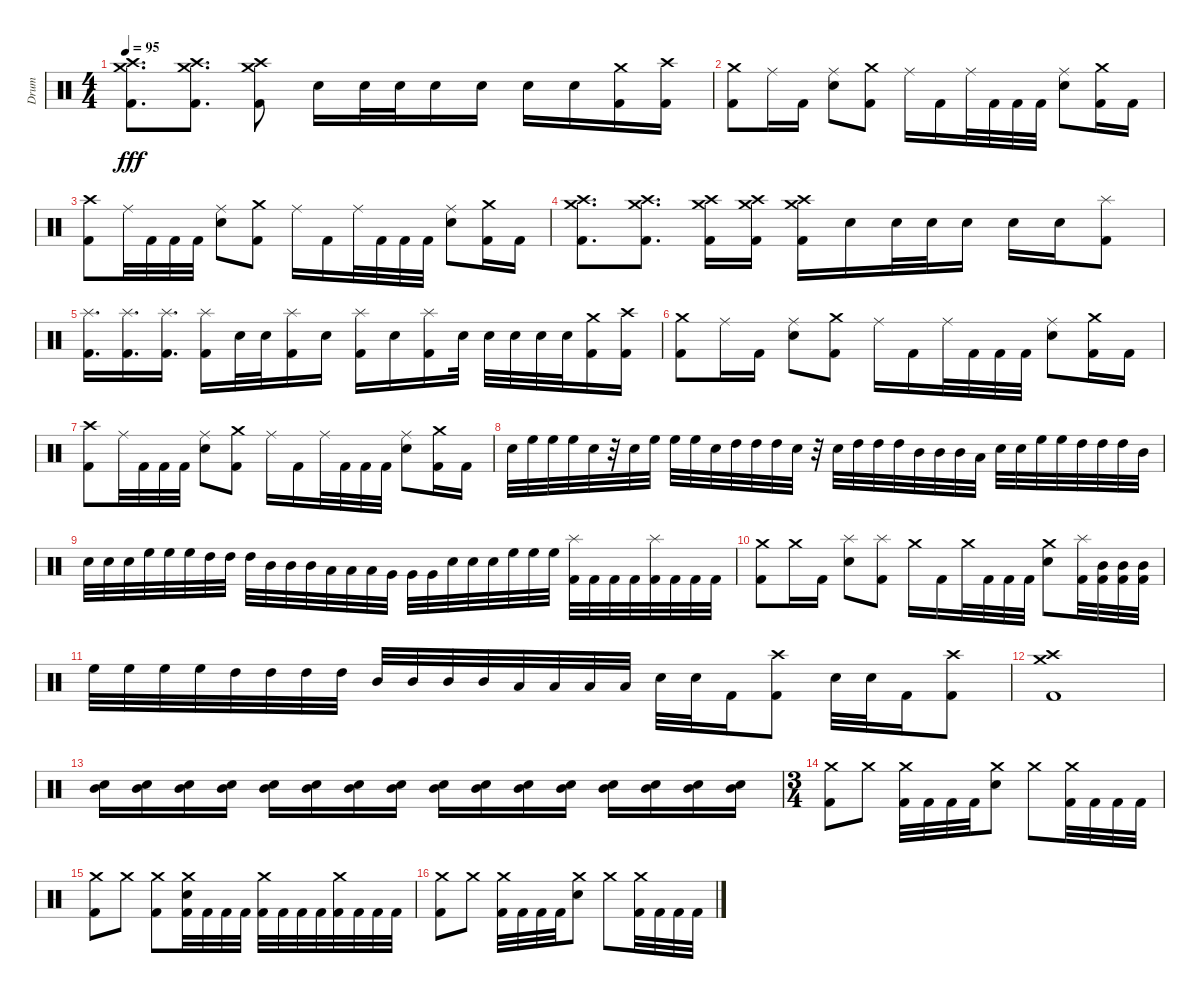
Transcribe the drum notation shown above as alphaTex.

\track ("Drum" "Drum") {instrument percussion}
\staff {score}
\articulation defaults
\ts (4 4)
\tempo 95
\clef neutral
\ks c
("Crash medium (hit)" "Crash high (hit)" "Kick (hit) 2").8{d dy fff} ("Crash medium (hit)" "Crash high (hit)" "Kick (hit) 2").8{d} ("Crash medium (hit)" "Crash high (hit)" "Kick (hit) 2").8 "Electric Snare (hit)".16 "Electric Snare (hit)".32 "Electric Snare (hit)".32 "Electric Snare (hit)".16 "Electric Snare (hit)".16 "Electric Snare (hit)".16 "Electric Snare (hit)".16 ("Crash medium (hit)" "Kick (hit) 2").16 ("Crash high (hit)" "Kick (hit) 2").16 |
("Crash medium (hit)" "Kick (hit) 2").8 "Ride (middle)".16 "Kick (hit) 2".16 ("Ride (middle)" "Electric Snare (hit)").8 ("Crash medium (hit)" "Kick (hit) 2").8 "Ride (middle)".16 "Kick (hit) 2".16 "Ride (middle)".32 "Kick (hit) 2".32 "Kick (hit) 2".32 "Kick (hit) 2".32 ("Ride (middle)" "Electric Snare (hit)").8 ("Crash medium (hit)" "Kick (hit) 2").16 "Kick (hit) 2".16 |
("Crash high (hit)" "Kick (hit) 2").8 "Ride (middle)".32 "Kick (hit) 2".32 "Kick (hit) 2".32 "Kick (hit) 2".32 ("Ride (middle)" "Electric Snare (hit)").8 ("Crash medium (hit)" "Kick (hit) 2").8 "Ride (middle)".16 "Kick (hit) 2".16 "Ride (middle)".32 "Kick (hit) 2".32 "Kick (hit) 2".32 "Kick (hit) 2".32 ("Ride (middle)" "Electric Snare (hit)").8 ("Crash medium (hit)" "Kick (hit) 2").16 "Kick (hit) 2".16 |
("Crash medium (hit)" "Crash high (hit)" "Kick (hit) 2").8{d} ("Crash medium (hit)" "Crash high (hit)" "Kick (hit) 2").8{d} ("Crash medium (hit)" "Crash high (hit)" "Kick (hit) 2").16 ("Crash medium (hit)" "Crash high (hit)" "Kick (hit) 2").16 ("Crash medium (hit)" "Crash high (hit)" "Kick (hit) 2").16 "Electric Snare (hit)".16 "Electric Snare (hit)".32 "Electric Snare (hit)".32 "Electric Snare (hit)".16 "Electric Snare (hit)".16 "Electric Snare (hit)".16 ("Splash (hit)" "Kick (hit) 2").8 |
("Splash (hit)" "Kick (hit) 2").16{d} ("Splash (hit)" "Kick (hit) 2").16{d} ("Splash (hit)" "Kick (hit) 2").16{d} ("Splash (hit)" "Kick (hit) 2").16 "Electric Snare (hit)".32 "Electric Snare (hit)".32 ("Splash (hit)" "Kick (hit) 2").16 "Electric Snare (hit)".16 ("Splash (hit)" "Kick (hit) 2").16 "Electric Snare (hit)".16 ("Splash (hit)" "Kick (hit) 2").16 "Electric Snare (hit)".32 "Electric Snare (hit)".32 "Electric Snare (hit)".32 "Electric Snare (hit)".32 "Electric Snare (hit)".32 ("Crash medium (hit)" "Kick (hit) 2").16 ("Crash high (hit)" "Kick (hit) 2").16 |
("Crash medium (hit)" "Kick (hit) 2").8 "Ride (middle)".16 "Kick (hit) 2".16 ("Ride (middle)" "Electric Snare (hit)").8 ("Crash medium (hit)" "Kick (hit) 2").8 "Ride (middle)".16 "Kick (hit) 2".16 "Ride (middle)".32 "Kick (hit) 2".32 "Kick (hit) 2".32 "Kick (hit) 2".32 ("Ride (middle)" "Electric Snare (hit)").8 ("Crash medium (hit)" "Kick (hit) 2").16 "Kick (hit) 2".16 |
("Crash high (hit)" "Kick (hit) 2").8 "Ride (middle)".32 "Kick (hit) 2".32 "Kick (hit) 2".32 "Kick (hit) 2".32 ("Ride (middle)" "Electric Snare (hit)").8 ("Crash medium (hit)" "Kick (hit) 2").8 "Ride (middle)".16 "Kick (hit) 2".16 "Ride (middle)".32 "Kick (hit) 2".32 "Kick (hit) 2".32 "Kick (hit) 2".32 ("Ride (middle)" "Electric Snare (hit)").8 ("Crash medium (hit)" "Kick (hit) 2").16 "Kick (hit) 2".16 |
"Electric Snare (hit)".32 "High Floor Tom (hit)".32 "High Floor Tom (hit)".32 "High Floor Tom (hit)".32 "Electric Snare (hit)".32 r.32 "Electric Snare (hit)".32 "High Floor Tom (hit)".32 "High Floor Tom (hit)".32 "High Floor Tom (hit)".32 "Electric Snare (hit)".32 "High Tom (hit)".32 "High Tom (hit)".32 "High Tom (hit)".32 "Electric Snare (hit)".32 r.32 "Electric Snare (hit)".32 "High Tom (hit)".32 "High Tom (hit)".32 "High Tom (hit)".32 "Mid Tom (hit)".32 "Mid Tom (hit)".32 "Mid Tom (hit)".32 "Low Tom (hit)".32 "Electric Snare (hit)".32 "Electric Snare (hit)".32 "High Floor Tom (hit)".32 "High Floor Tom (hit)".32 "High Tom (hit)".32 "High Tom (hit)".32 "High Tom (hit)".32 "Mid Tom (hit)".32 |
"Electric Snare (hit)".32 "Electric Snare (hit)".32 "Electric Snare (hit)".32 "High Floor Tom (hit)".32 "High Floor Tom (hit)".32 "High Floor Tom (hit)".32 "High Tom (hit)".32 "High Tom (hit)".32 "High Tom (hit)".32 "Mid Tom (hit)".32 "Mid Tom (hit)".32 "Mid Tom (hit)".32 "Low Tom (hit)".32 "Low Tom (hit)".32 "Low Tom (hit)".32 "Very Low Tom (hit)".32 "Very Low Tom (hit)".32 "Very Low Tom (hit)".32 "Electric Snare (hit)".32 "Electric Snare (hit)".32 "Electric Snare (hit)".32 "High Floor Tom (hit)".32 "High Floor Tom (hit)".32 "High Floor Tom (hit)".32 ("Splash (hit)" "Kick (hit) 2").32 "Kick (hit) 2".32 "Kick (hit) 2".32 "Kick (hit) 2".32 ("Splash (hit)" "Kick (hit) 2").32 "Kick (hit) 2".32 "Kick (hit) 2".32 "Kick (hit) 2".32 |
("Crash medium (hit)" "Kick (hit) 2").8 "Crash medium (hit)".16 "Kick (hit) 2".16 ("Splash (hit)" "Electric Snare (hit)").8 ("Splash (hit)" "Kick (hit) 2").8 "Crash medium (hit)".16 "Kick (hit) 2".16 "Crash medium (hit)".32 "Kick (hit) 2".32 "Kick (hit) 2".32 "Kick (hit) 2".32 ("Crash medium (hit)" "Electric Snare (hit)").8 ("Splash (hit)" "Kick (hit) 2").32 ("Mid Tom (hit)" "Kick (hit) 2").32 ("Mid Tom (hit)" "Kick (hit) 2").32 ("Mid Tom (hit)" "Kick (hit) 2").32 |
"High Floor Tom (hit)".32 "High Floor Tom (hit)".32 "High Floor Tom (hit)".32 "High Floor Tom (hit)".32 "High Tom (hit)".32 "High Tom (hit)".32 "High Tom (hit)".32 "High Tom (hit)".32 "Mid Tom (hit)".32 "Mid Tom (hit)".32 "Mid Tom (hit)".32 "Mid Tom (hit)".32 "Low Tom (hit)".32 "Low Tom (hit)".32 "Low Tom (hit)".32 "Low Tom (hit)".32 "Electric Snare (hit)".32 "Electric Snare (hit)".32 "Kick (hit) 2".16 ("Crash high (hit)" "Kick (hit) 2").8 "Electric Snare (hit)".32 "Electric Snare (hit)".32 "Kick (hit) 2".16 ("Crash high (hit)" "Kick (hit) 2").8 |
("Crash medium (hit)" "Crash high (hit)" "Kick (hit) 2").1 |
("Electric Snare (hit)" "Mid Tom (hit)").16{volume 8} ("Electric Snare (hit)" "Mid Tom (hit)").16{volume 16} ("Electric Snare (hit)" "Mid Tom (hit)").16 ("Electric Snare (hit)" "Mid Tom (hit)").16 ("Electric Snare (hit)" "Mid Tom (hit)").16 ("Electric Snare (hit)" "Mid Tom (hit)").16 ("Electric Snare (hit)" "Mid Tom (hit)").16 ("Electric Snare (hit)" "Mid Tom (hit)").16 ("Electric Snare (hit)" "Mid Tom (hit)").16 ("Electric Snare (hit)" "Mid Tom (hit)").16 ("Electric Snare (hit)" "Mid Tom (hit)").16 ("Electric Snare (hit)" "Mid Tom (hit)").16 ("Electric Snare (hit)" "Mid Tom (hit)").16 ("Electric Snare (hit)" "Mid Tom (hit)").16 ("Electric Snare (hit)" "Mid Tom (hit)").16 ("Electric Snare (hit)" "Mid Tom (hit)").16 |
\ts (3 4)
("Crash medium (hit)" "Kick (hit) 2").8 "Crash medium (hit)".8 ("Crash medium (hit)" "Kick (hit) 2").32 "Kick (hit) 2".32 "Kick (hit) 2".32 "Kick (hit) 2".32 ("Crash medium (hit)" "Electric Snare (hit)").8 "Crash medium (hit)".8 ("Crash medium (hit)" "Kick (hit) 2").32 "Kick (hit) 2".32 "Kick (hit) 2".32 "Kick (hit) 2".32 |
("Crash medium (hit)" "Kick (hit) 2").8 "Crash medium (hit)".8 ("Crash medium (hit)" "Kick (hit) 2").8 ("Crash medium (hit)" "Electric Snare (hit)" "Kick (hit) 2").32 "Kick (hit) 2".32 "Kick (hit) 2".32 "Kick (hit) 2".32 ("Crash medium (hit)" "Kick (hit) 2").32 "Kick (hit) 2".32 "Kick (hit) 2".32 "Kick (hit) 2".32 ("Crash medium (hit)" "Kick (hit) 2").32 "Kick (hit) 2".32 "Kick (hit) 2".32 "Kick (hit) 2".32 |
("Crash medium (hit)" "Kick (hit) 2").8 "Crash medium (hit)".8 ("Crash medium (hit)" "Kick (hit) 2").32 "Kick (hit) 2".32 "Kick (hit) 2".32 "Kick (hit) 2".32 ("Crash medium (hit)" "Electric Snare (hit)").8 "Crash medium (hit)".8 ("Crash medium (hit)" "Kick (hit) 2").32 "Kick (hit) 2".32 "Kick (hit) 2".32 "Kick (hit) 2".32
